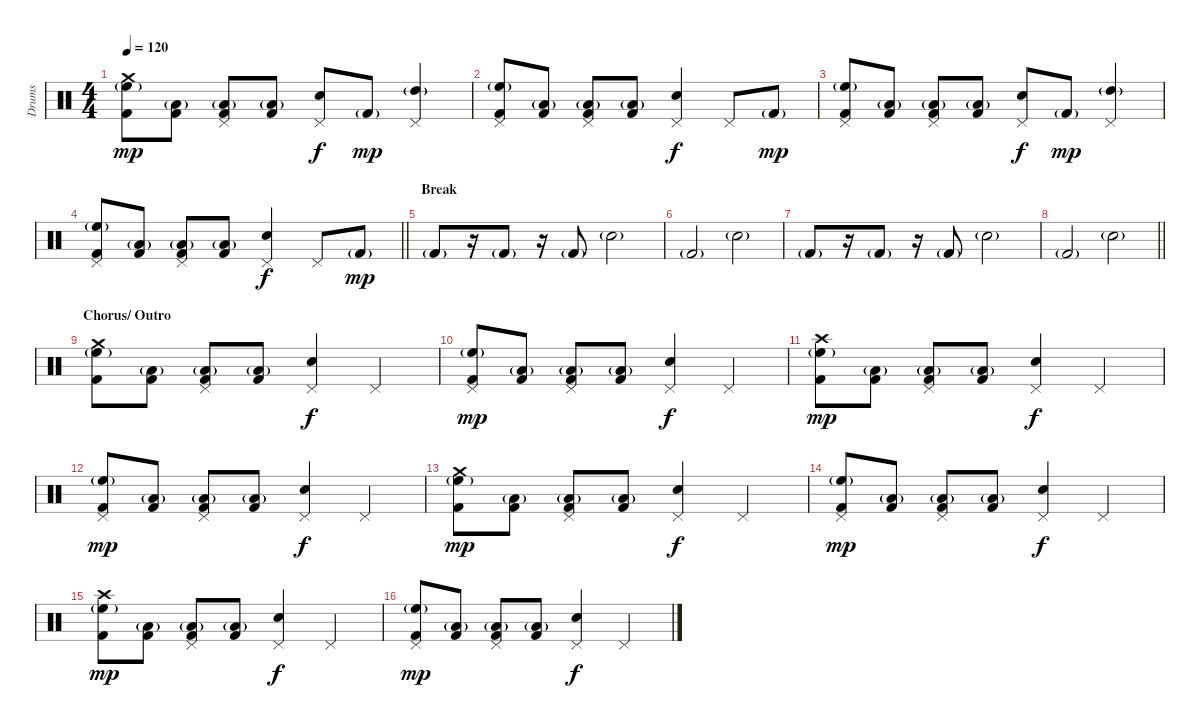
\track ("Drums" "Drums") {instrument percussion}
\staff {score}
\articulation defaults
\ts (4 4)
\tempo 120
\clef neutral
\ks c
("Crash medium (hit)" "High Floor Tom (hit)"{g} "Kick (hit) 2").8{dy mp} ("Low Tom (hit)"{g} "Kick (hit) 2").8 ("Pedal Hi-Hat (hit)" "Low Tom (hit)"{g} "Kick (hit) 2").8 ("Low Tom (hit)"{g} "Kick (hit) 2").8 ("Pedal Hi-Hat (hit)" "Electric Snare (hit)").8{dy f} "Kick (hit) 2"{g}.8{dy mp} ("Pedal Hi-Hat (hit)" "High Tom (hit)"{g}).4 |
("Pedal Hi-Hat (hit)" "High Floor Tom (hit)"{g} "Kick (hit) 2").8 ("Low Tom (hit)"{g} "Kick (hit) 2").8 ("Pedal Hi-Hat (hit)" "Low Tom (hit)"{g} "Kick (hit) 2").8 ("Low Tom (hit)"{g} "Kick (hit) 2").8 ("Pedal Hi-Hat (hit)" "Electric Snare (hit)").4{dy f} "Pedal Hi-Hat (hit)".8 "Kick (hit) 2"{g}.8{dy mp} |
("Pedal Hi-Hat (hit)" "High Floor Tom (hit)"{g} "Kick (hit) 2").8 ("Low Tom (hit)"{g} "Kick (hit) 2").8 ("Pedal Hi-Hat (hit)" "Low Tom (hit)"{g} "Kick (hit) 2").8 ("Low Tom (hit)"{g} "Kick (hit) 2").8 ("Pedal Hi-Hat (hit)" "Electric Snare (hit)").8{dy f} "Kick (hit) 2"{g}.8{dy mp} ("Pedal Hi-Hat (hit)" "High Tom (hit)"{g}).4 |
\barLineRight lightlight
("Pedal Hi-Hat (hit)" "High Floor Tom (hit)"{g} "Kick (hit) 2").8 ("Low Tom (hit)"{g} "Kick (hit) 2").8 ("Pedal Hi-Hat (hit)" "Low Tom (hit)"{g} "Kick (hit) 2").8 ("Low Tom (hit)"{g} "Kick (hit) 2").8 ("Pedal Hi-Hat (hit)" "Electric Snare (hit)").4{dy f} "Pedal Hi-Hat (hit)".8 "Kick (hit) 2"{g}.8{dy mp} |
\section ("" "Break")
"Kick (hit) 2"{g}.8 r.16 "Kick (hit) 2"{g}.8 r.16 "Kick (hit) 2"{g}.8 "Electric Snare (hit)"{g}.2 |
"Kick (hit) 2"{g}.2 "Electric Snare (hit)"{g}.2 |
"Kick (hit) 2"{g}.8 r.16 "Kick (hit) 2"{g}.8 r.16 "Kick (hit) 2"{g}.8 "Electric Snare (hit)"{g}.2 |
\barLineRight lightlight "Kick (hit) 2"{g}.2 "Electric Snare (hit)"{g}.2
|
\section ("" "Chorus/ Outro")
("Crash medium (hit)" "High Floor Tom (hit)"{g} "Kick (hit) 2").8 ("Low Tom (hit)"{g} "Kick (hit) 2").8 ("Pedal Hi-Hat (hit)" "Low Tom (hit)"{g} "Kick (hit) 2").8 ("Low Tom (hit)"{g} "Kick (hit) 2").8 ("Pedal Hi-Hat (hit)" "Electric Snare (hit)").4{dy f} "Pedal Hi-Hat (hit)".4 |
("Pedal Hi-Hat (hit)" "High Floor Tom (hit)"{g} "Kick (hit) 2").8{dy mp} ("Low Tom (hit)"{g} "Kick (hit) 2").8 ("Pedal Hi-Hat (hit)" "Low Tom (hit)"{g} "Kick (hit) 2").8 ("Low Tom (hit)"{g} "Kick (hit) 2").8 ("Pedal Hi-Hat (hit)" "Electric Snare (hit)").4{dy f} "Pedal Hi-Hat (hit)".4 |
("Crash high (hit)" "High Floor Tom (hit)"{g} "Kick (hit) 2").8{dy mp} ("Low Tom (hit)"{g} "Kick (hit) 2").8 ("Pedal Hi-Hat (hit)" "Low Tom (hit)"{g} "Kick (hit) 2").8 ("Low Tom (hit)"{g} "Kick (hit) 2").8 ("Pedal Hi-Hat (hit)" "Electric Snare (hit)").4{dy f} "Pedal Hi-Hat (hit)".4 |
("Pedal Hi-Hat (hit)" "High Floor Tom (hit)"{g} "Kick (hit) 2").8{dy mp} ("Low Tom (hit)"{g} "Kick (hit) 2").8 ("Pedal Hi-Hat (hit)" "Low Tom (hit)"{g} "Kick (hit) 2").8 ("Low Tom (hit)"{g} "Kick (hit) 2").8 ("Pedal Hi-Hat (hit)" "Electric Snare (hit)").4{dy f} "Pedal Hi-Hat (hit)".4 |
("Crash medium (hit)" "High Floor Tom (hit)"{g} "Kick (hit) 2").8{dy mp} ("Low Tom (hit)"{g} "Kick (hit) 2").8 ("Pedal Hi-Hat (hit)" "Low Tom (hit)"{g} "Kick (hit) 2").8 ("Low Tom (hit)"{g} "Kick (hit) 2").8 ("Pedal Hi-Hat (hit)" "Electric Snare (hit)").4{dy f} "Pedal Hi-Hat (hit)".4 |
("Pedal Hi-Hat (hit)" "High Floor Tom (hit)"{g} "Kick (hit) 2").8{dy mp} ("Low Tom (hit)"{g} "Kick (hit) 2").8 ("Pedal Hi-Hat (hit)" "Low Tom (hit)"{g} "Kick (hit) 2").8 ("Low Tom (hit)"{g} "Kick (hit) 2").8 ("Pedal Hi-Hat (hit)" "Electric Snare (hit)").4{dy f} "Pedal Hi-Hat (hit)".4 |
("Crash high (hit)" "High Floor Tom (hit)"{g} "Kick (hit) 2").8{dy mp} ("Low Tom (hit)"{g} "Kick (hit) 2").8 ("Pedal Hi-Hat (hit)" "Low Tom (hit)"{g} "Kick (hit) 2").8 ("Low Tom (hit)"{g} "Kick (hit) 2").8 ("Pedal Hi-Hat (hit)" "Electric Snare (hit)").4{dy f} "Pedal Hi-Hat (hit)".4 |
("Pedal Hi-Hat (hit)" "High Floor Tom (hit)"{g} "Kick (hit) 2").8{dy mp} ("Low Tom (hit)"{g} "Kick (hit) 2").8 ("Pedal Hi-Hat (hit)" "Low Tom (hit)"{g} "Kick (hit) 2").8 ("Low Tom (hit)"{g} "Kick (hit) 2").8 ("Pedal Hi-Hat (hit)" "Electric Snare (hit)").4{dy f} "Pedal Hi-Hat (hit)".4
